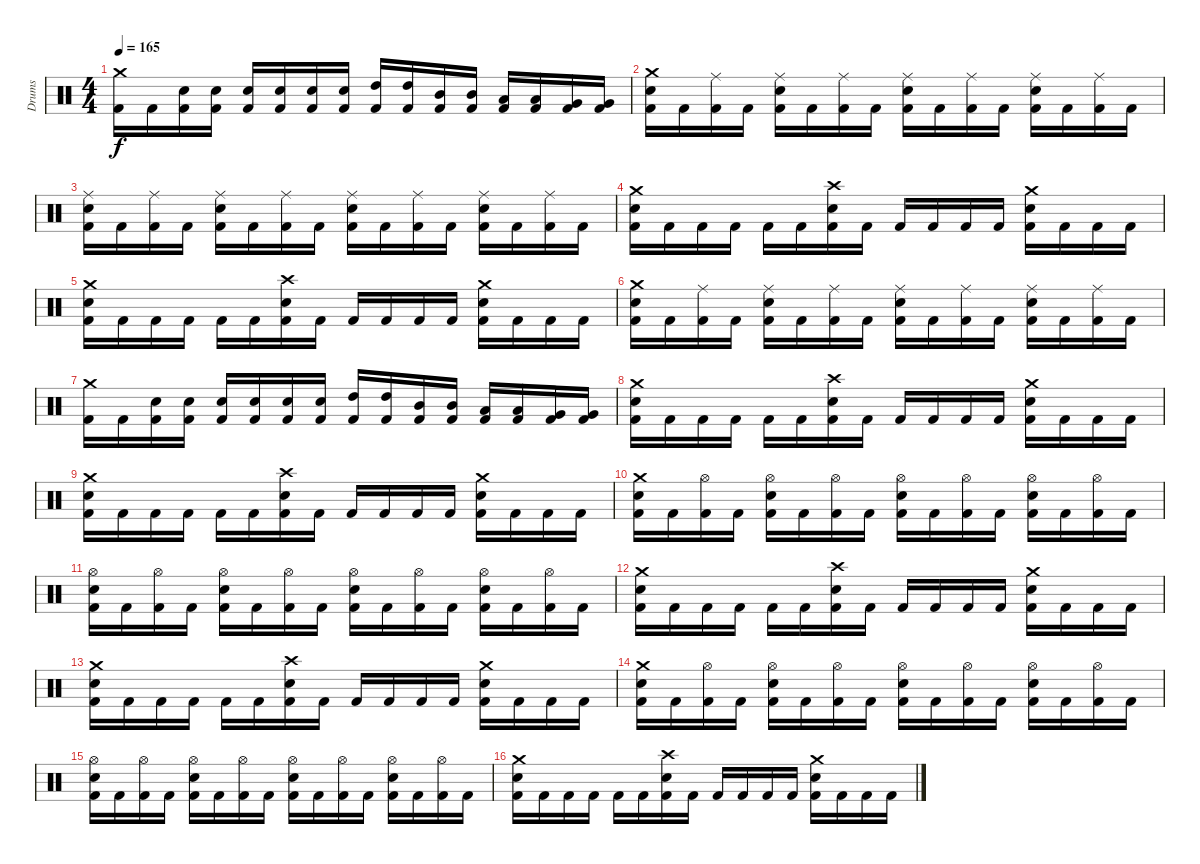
\track ("Drums" "Drums") {instrument percussion}
\staff {score}
\articulation defaults
\ts (4 4)
\tempo 165
\clef neutral
\ks c
("Crash medium (hit)" "Kick (hit) 2").16{dy f} "Kick (hit) 2".16 ("Electric Snare (hit)" "Kick (hit) 2").16 ("Electric Snare (hit)" "Kick (hit) 2").16 ("Electric Snare (hit)" "Kick (hit) 2").16 ("Electric Snare (hit)" "Kick (hit) 2").16 ("Electric Snare (hit)" "Kick (hit) 2").16 ("Electric Snare (hit)" "Kick (hit) 2").16 ("High Tom (hit)" "Kick (hit) 2").16 ("High Tom (hit)" "Kick (hit) 2").16 ("Mid Tom (hit)" "Kick (hit) 2").16 ("Mid Tom (hit)" "Kick (hit) 2").16 ("Low Tom (hit)" "Kick (hit) 2").16 ("Low Tom (hit)" "Kick (hit) 2").16 ("Very Low Tom (hit)" "Kick (hit) 2").16 ("Very Low Tom (hit)" "Kick (hit) 2").16 |
("Crash medium (hit)" "Electric Snare (hit)" "Kick (hit) 2").16 "Kick (hit) 2".16 ("Ride (middle)" "Kick (hit) 2").16 "Kick (hit) 2".16 ("Ride (middle)" "Electric Snare (hit)" "Kick (hit) 2").16 "Kick (hit) 2".16 ("Ride (middle)" "Kick (hit) 2").16 "Kick (hit) 2".16 ("Ride (middle)" "Electric Snare (hit)" "Kick (hit) 2").16 "Kick (hit) 2".16 ("Ride (middle)" "Kick (hit) 2").16 "Kick (hit) 2".16 ("Ride (middle)" "Electric Snare (hit)" "Kick (hit) 2").16 "Kick (hit) 2".16 ("Ride (middle)" "Kick (hit) 2").16 "Kick (hit) 2".16 |
("Ride (middle)" "Electric Snare (hit)" "Kick (hit) 2").16 "Kick (hit) 2".16 ("Ride (middle)" "Kick (hit) 2").16 "Kick (hit) 2".16 ("Ride (middle)" "Electric Snare (hit)" "Kick (hit) 2").16 "Kick (hit) 2".16 ("Ride (middle)" "Kick (hit) 2").16 "Kick (hit) 2".16 ("Ride (middle)" "Electric Snare (hit)" "Kick (hit) 2").16 "Kick (hit) 2".16 ("Ride (middle)" "Kick (hit) 2").16 "Kick (hit) 2".16 ("Ride (middle)" "Electric Snare (hit)" "Kick (hit) 2").16 "Kick (hit) 2".16 ("Ride (middle)" "Kick (hit) 2").16 "Kick (hit) 2".16 |
("Crash medium (hit)" "Electric Snare (hit)" "Kick (hit) 2").16 "Kick (hit) 2".16 "Kick (hit) 2".16 "Kick (hit) 2".16 "Kick (hit) 2".16 "Kick (hit) 2".16 ("Crash high (hit)" "Electric Snare (hit)" "Kick (hit) 2").16 "Kick (hit) 2".16 "Kick (hit) 2".16 "Kick (hit) 2".16 "Kick (hit) 2".16 "Kick (hit) 2".16 ("Crash medium (hit)" "Electric Snare (hit)" "Kick (hit) 2").16 "Kick (hit) 2".16 "Kick (hit) 2".16 "Kick (hit) 2".16 |
("Crash medium (hit)" "Electric Snare (hit)" "Kick (hit) 2").16 "Kick (hit) 2".16 "Kick (hit) 2".16 "Kick (hit) 2".16 "Kick (hit) 2".16 "Kick (hit) 2".16 ("Crash high (hit)" "Electric Snare (hit)" "Kick (hit) 2").16 "Kick (hit) 2".16 "Kick (hit) 2".16 "Kick (hit) 2".16 "Kick (hit) 2".16 "Kick (hit) 2".16 ("Crash medium (hit)" "Electric Snare (hit)" "Kick (hit) 2").16 "Kick (hit) 2".16 "Kick (hit) 2".16 "Kick (hit) 2".16 |
("Crash medium (hit)" "Electric Snare (hit)" "Kick (hit) 2").16 "Kick (hit) 2".16 ("Ride (middle)" "Kick (hit) 2").16 "Kick (hit) 2".16 ("Ride (middle)" "Electric Snare (hit)" "Kick (hit) 2").16 "Kick (hit) 2".16 ("Ride (middle)" "Kick (hit) 2").16 "Kick (hit) 2".16 ("Ride (middle)" "Electric Snare (hit)" "Kick (hit) 2").16 "Kick (hit) 2".16 ("Ride (middle)" "Kick (hit) 2").16 "Kick (hit) 2".16 ("Ride (middle)" "Electric Snare (hit)" "Kick (hit) 2").16 "Kick (hit) 2".16 ("Ride (middle)" "Kick (hit) 2").16 "Kick (hit) 2".16 |
("Crash medium (hit)" "Kick (hit) 2").16 "Kick (hit) 2".16 ("Electric Snare (hit)" "Kick (hit) 2").16 ("Electric Snare (hit)" "Kick (hit) 2").16 ("Electric Snare (hit)" "Kick (hit) 2").16 ("Electric Snare (hit)" "Kick (hit) 2").16 ("Electric Snare (hit)" "Kick (hit) 2").16 ("Electric Snare (hit)" "Kick (hit) 2").16 ("High Tom (hit)" "Kick (hit) 2").16 ("High Tom (hit)" "Kick (hit) 2").16 ("Mid Tom (hit)" "Kick (hit) 2").16 ("Mid Tom (hit)" "Kick (hit) 2").16 ("Low Tom (hit)" "Kick (hit) 2").16 ("Low Tom (hit)" "Kick (hit) 2").16 ("Very Low Tom (hit)" "Kick (hit) 2").16 ("Very Low Tom (hit)" "Kick (hit) 2").16 |
("Crash medium (hit)" "Electric Snare (hit)" "Kick (hit) 2").16 "Kick (hit) 2".16 "Kick (hit) 2".16 "Kick (hit) 2".16 "Kick (hit) 2".16 "Kick (hit) 2".16 ("Crash high (hit)" "Electric Snare (hit)" "Kick (hit) 2").16 "Kick (hit) 2".16 "Kick (hit) 2".16 "Kick (hit) 2".16 "Kick (hit) 2".16 "Kick (hit) 2".16 ("Crash medium (hit)" "Electric Snare (hit)" "Kick (hit) 2").16 "Kick (hit) 2".16 "Kick (hit) 2".16 "Kick (hit) 2".16 |
("Crash medium (hit)" "Electric Snare (hit)" "Kick (hit) 2").16 "Kick (hit) 2".16 "Kick (hit) 2".16 "Kick (hit) 2".16 "Kick (hit) 2".16 "Kick (hit) 2".16 ("Crash high (hit)" "Electric Snare (hit)" "Kick (hit) 2").16 "Kick (hit) 2".16 "Kick (hit) 2".16 "Kick (hit) 2".16 "Kick (hit) 2".16 "Kick (hit) 2".16 ("Crash medium (hit)" "Electric Snare (hit)" "Kick (hit) 2").16 "Kick (hit) 2".16 "Kick (hit) 2".16 "Kick (hit) 2".16 |
("Crash medium (hit)" "Electric Snare (hit)" "Kick (hit) 2").16 "Kick (hit) 2".16 ("Hi-Hat (open)" "Kick (hit) 2").16 "Kick (hit) 2".16 ("Hi-Hat (open)" "Electric Snare (hit)" "Kick (hit) 2").16 "Kick (hit) 2".16 ("Hi-Hat (open)" "Kick (hit) 2").16 "Kick (hit) 2".16 ("Hi-Hat (open)" "Electric Snare (hit)" "Kick (hit) 2").16 "Kick (hit) 2".16 ("Hi-Hat (open)" "Kick (hit) 2").16 "Kick (hit) 2".16 ("Hi-Hat (open)" "Electric Snare (hit)" "Kick (hit) 2").16 "Kick (hit) 2".16 ("Hi-Hat (open)" "Kick (hit) 2").16 "Kick (hit) 2".16 |
("Hi-Hat (open)" "Electric Snare (hit)" "Kick (hit) 2").16 "Kick (hit) 2".16 ("Hi-Hat (open)" "Kick (hit) 2").16 "Kick (hit) 2".16 ("Hi-Hat (open)" "Electric Snare (hit)" "Kick (hit) 2").16 "Kick (hit) 2".16 ("Hi-Hat (open)" "Kick (hit) 2").16 "Kick (hit) 2".16 ("Hi-Hat (open)" "Electric Snare (hit)" "Kick (hit) 2").16 "Kick (hit) 2".16 ("Hi-Hat (open)" "Kick (hit) 2").16 "Kick (hit) 2".16 ("Hi-Hat (open)" "Electric Snare (hit)" "Kick (hit) 2").16 "Kick (hit) 2".16 ("Hi-Hat (open)" "Kick (hit) 2").16 "Kick (hit) 2".16 |
("Crash medium (hit)" "Electric Snare (hit)" "Kick (hit) 2").16 "Kick (hit) 2".16 "Kick (hit) 2".16 "Kick (hit) 2".16 "Kick (hit) 2".16 "Kick (hit) 2".16 ("Crash high (hit)" "Electric Snare (hit)" "Kick (hit) 2").16 "Kick (hit) 2".16 "Kick (hit) 2".16 "Kick (hit) 2".16 "Kick (hit) 2".16 "Kick (hit) 2".16 ("Crash medium (hit)" "Electric Snare (hit)" "Kick (hit) 2").16 "Kick (hit) 2".16 "Kick (hit) 2".16 "Kick (hit) 2".16 |
("Crash medium (hit)" "Electric Snare (hit)" "Kick (hit) 2").16 "Kick (hit) 2".16 "Kick (hit) 2".16 "Kick (hit) 2".16 "Kick (hit) 2".16 "Kick (hit) 2".16 ("Crash high (hit)" "Electric Snare (hit)" "Kick (hit) 2").16 "Kick (hit) 2".16 "Kick (hit) 2".16 "Kick (hit) 2".16 "Kick (hit) 2".16 "Kick (hit) 2".16 ("Crash medium (hit)" "Electric Snare (hit)" "Kick (hit) 2").16 "Kick (hit) 2".16 "Kick (hit) 2".16 "Kick (hit) 2".16 |
("Crash medium (hit)" "Electric Snare (hit)" "Kick (hit) 2").16 "Kick (hit) 2".16 ("Hi-Hat (open)" "Kick (hit) 2").16 "Kick (hit) 2".16 ("Hi-Hat (open)" "Electric Snare (hit)" "Kick (hit) 2").16 "Kick (hit) 2".16 ("Hi-Hat (open)" "Kick (hit) 2").16 "Kick (hit) 2".16 ("Hi-Hat (open)" "Electric Snare (hit)" "Kick (hit) 2").16 "Kick (hit) 2".16 ("Hi-Hat (open)" "Kick (hit) 2").16 "Kick (hit) 2".16 ("Hi-Hat (open)" "Electric Snare (hit)" "Kick (hit) 2").16 "Kick (hit) 2".16 ("Hi-Hat (open)" "Kick (hit) 2").16 "Kick (hit) 2".16 |
("Hi-Hat (open)" "Electric Snare (hit)" "Kick (hit) 2").16 "Kick (hit) 2".16 ("Hi-Hat (open)" "Kick (hit) 2").16 "Kick (hit) 2".16 ("Hi-Hat (open)" "Electric Snare (hit)" "Kick (hit) 2").16 "Kick (hit) 2".16 ("Hi-Hat (open)" "Kick (hit) 2").16 "Kick (hit) 2".16 ("Hi-Hat (open)" "Electric Snare (hit)" "Kick (hit) 2").16 "Kick (hit) 2".16 ("Hi-Hat (open)" "Kick (hit) 2").16 "Kick (hit) 2".16 ("Hi-Hat (open)" "Electric Snare (hit)" "Kick (hit) 2").16 "Kick (hit) 2".16 ("Hi-Hat (open)" "Kick (hit) 2").16 "Kick (hit) 2".16 |
("Crash medium (hit)" "Electric Snare (hit)" "Kick (hit) 2").16 "Kick (hit) 2".16 "Kick (hit) 2".16 "Kick (hit) 2".16 "Kick (hit) 2".16 "Kick (hit) 2".16 ("Crash high (hit)" "Electric Snare (hit)" "Kick (hit) 2").16 "Kick (hit) 2".16 "Kick (hit) 2".16 "Kick (hit) 2".16 "Kick (hit) 2".16 "Kick (hit) 2".16 ("Crash medium (hit)" "Electric Snare (hit)" "Kick (hit) 2").16 "Kick (hit) 2".16 "Kick (hit) 2".16 "Kick (hit) 2".16
